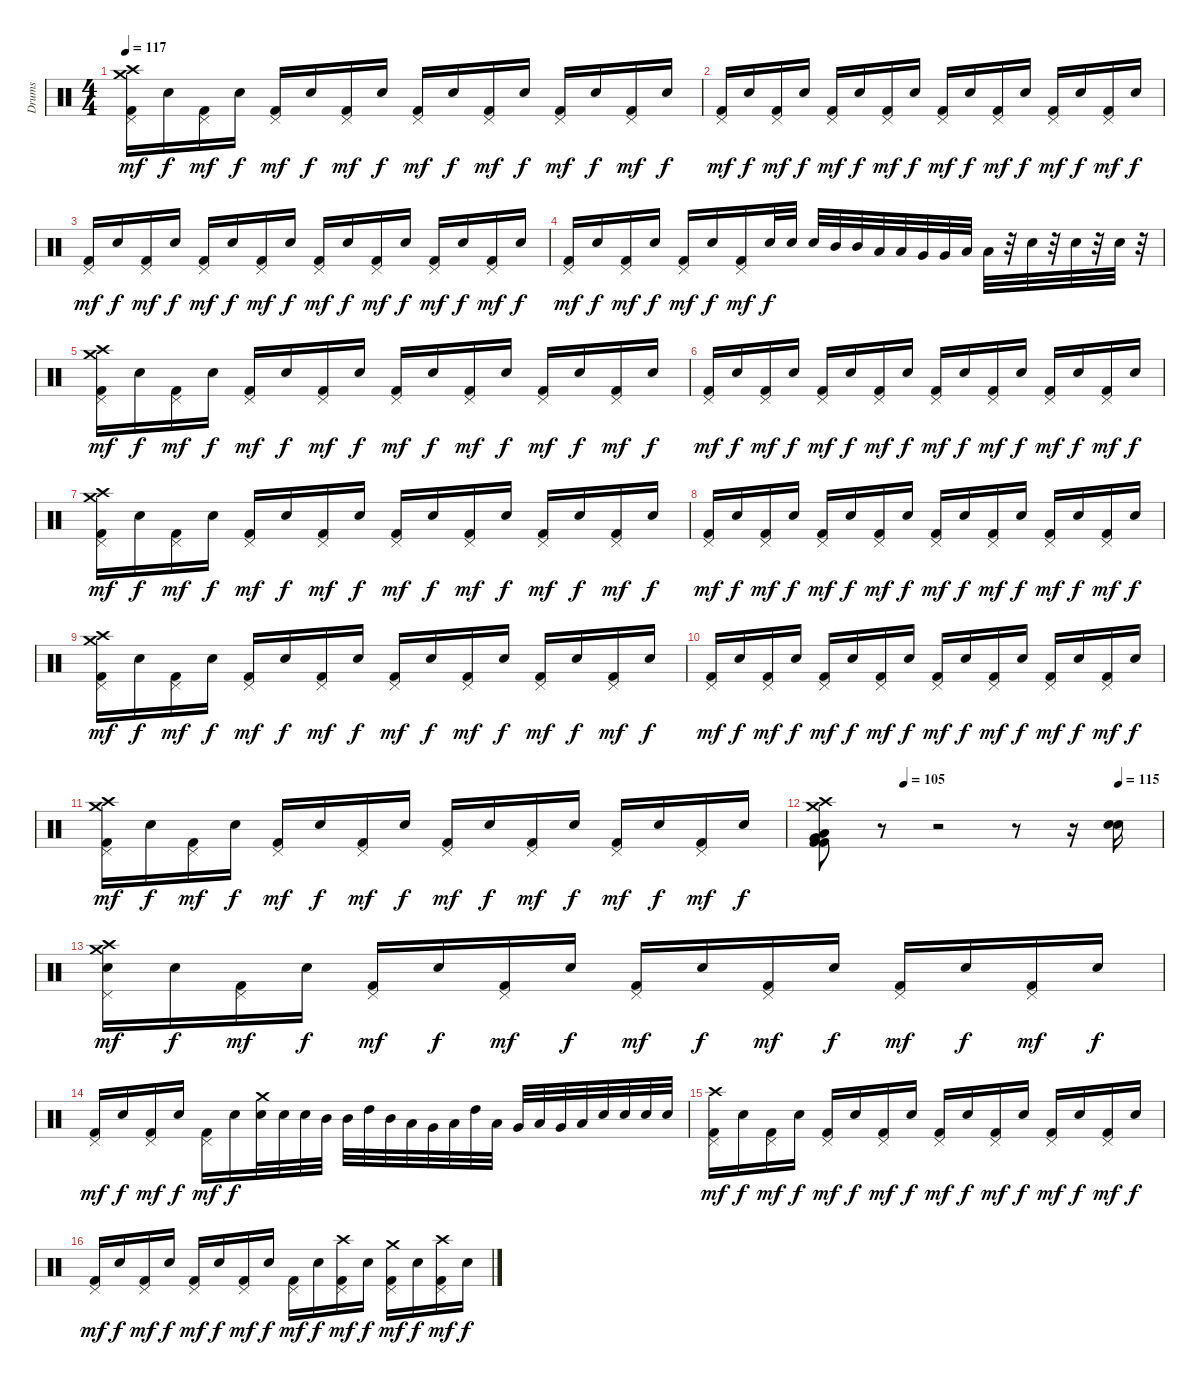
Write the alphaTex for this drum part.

\track ("Drums" "Drums") {instrument percussion}
\staff {score}
\articulation defaults
\ts (4 4)
\tempo 117
\clef neutral
\ks c
("Crash high (hit)" "Crash medium (hit)" "Pedal Hi-Hat (hit)" "Kick (hit) 2").16{dy mf} "Snare (hit) 2".16{dy f} ("Pedal Hi-Hat (hit)" "Kick (hit) 2").16{dy mf} "Snare (hit) 2".16{dy f} ("Pedal Hi-Hat (hit)" "Kick (hit) 2").16{dy mf} "Snare (hit) 2".16{dy f} ("Pedal Hi-Hat (hit)" "Kick (hit) 2").16{dy mf} "Snare (hit) 2".16{dy f} ("Pedal Hi-Hat (hit)" "Kick (hit) 2").16{dy mf} "Snare (hit) 2".16{dy f} ("Pedal Hi-Hat (hit)" "Kick (hit) 2").16{dy mf} "Snare (hit) 2".16{dy f} ("Pedal Hi-Hat (hit)" "Kick (hit) 2").16{dy mf} "Snare (hit) 2".16{dy f} ("Pedal Hi-Hat (hit)" "Kick (hit) 2").16{dy mf} "Snare (hit) 2".16{dy f} |
("Pedal Hi-Hat (hit)" "Kick (hit) 2").16{dy mf} "Snare (hit) 2".16{dy f} ("Pedal Hi-Hat (hit)" "Kick (hit) 2").16{dy mf} "Snare (hit) 2".16{dy f} ("Pedal Hi-Hat (hit)" "Kick (hit) 2").16{dy mf} "Snare (hit) 2".16{dy f} ("Pedal Hi-Hat (hit)" "Kick (hit) 2").16{dy mf} "Snare (hit) 2".16{dy f} ("Pedal Hi-Hat (hit)" "Kick (hit) 2").16{dy mf} "Snare (hit) 2".16{dy f} ("Pedal Hi-Hat (hit)" "Kick (hit) 2").16{dy mf} "Snare (hit) 2".16{dy f} ("Pedal Hi-Hat (hit)" "Kick (hit) 2").16{dy mf} "Snare (hit) 2".16{dy f} ("Pedal Hi-Hat (hit)" "Kick (hit) 2").16{dy mf} "Snare (hit) 2".16{dy f} |
("Pedal Hi-Hat (hit)" "Kick (hit) 2").16{dy mf} "Snare (hit) 2".16{dy f} ("Pedal Hi-Hat (hit)" "Kick (hit) 2").16{dy mf} "Snare (hit) 2".16{dy f} ("Pedal Hi-Hat (hit)" "Kick (hit) 2").16{dy mf} "Snare (hit) 2".16{dy f} ("Pedal Hi-Hat (hit)" "Kick (hit) 2").16{dy mf} "Snare (hit) 2".16{dy f} ("Pedal Hi-Hat (hit)" "Kick (hit) 2").16{dy mf} "Snare (hit) 2".16{dy f} ("Pedal Hi-Hat (hit)" "Kick (hit) 2").16{dy mf} "Snare (hit) 2".16{dy f} ("Pedal Hi-Hat (hit)" "Kick (hit) 2").16{dy mf} "Snare (hit) 2".16{dy f} ("Pedal Hi-Hat (hit)" "Kick (hit) 2").16{dy mf} "Snare (hit) 2".16{dy f} |
("Pedal Hi-Hat (hit)" "Kick (hit) 2").16{dy mf} "Snare (hit) 2".16{dy f} ("Pedal Hi-Hat (hit)" "Kick (hit) 2").16{dy mf} "Snare (hit) 2".16{dy f} ("Pedal Hi-Hat (hit)" "Kick (hit) 2").16{dy mf} "Snare (hit) 2".16{dy f} ("Pedal Hi-Hat (hit)" "Kick (hit) 2").16{dy mf} "Snare (hit) 2".32{dy f} "Snare (hit) 2".32 "Snare (hit) 2".32 "Mid Tom (hit)".32 "Mid Tom (hit)".32 "Low Tom (hit)".32 "Low Tom (hit)".32 "Very Low Tom (hit)".32 "Very Low Tom (hit)".32 "Low Floor Tom (hit)".32 "Low Floor Tom (hit)".32 r.32 "Snare (hit) 2".32 r.32 "Snare (hit) 2".32 r.32 "Snare (hit) 2".32 r.32 |
("Crash high (hit)" "Crash medium (hit)" "Pedal Hi-Hat (hit)" "Kick (hit) 2").16{dy mf} "Snare (hit) 2".16{dy f} ("Pedal Hi-Hat (hit)" "Kick (hit) 2").16{dy mf} "Snare (hit) 2".16{dy f} ("Pedal Hi-Hat (hit)" "Kick (hit) 2").16{dy mf} "Snare (hit) 2".16{dy f} ("Pedal Hi-Hat (hit)" "Kick (hit) 2").16{dy mf} "Snare (hit) 2".16{dy f} ("Pedal Hi-Hat (hit)" "Kick (hit) 2").16{dy mf} "Snare (hit) 2".16{dy f} ("Pedal Hi-Hat (hit)" "Kick (hit) 2").16{dy mf} "Snare (hit) 2".16{dy f} ("Pedal Hi-Hat (hit)" "Kick (hit) 2").16{dy mf} "Snare (hit) 2".16{dy f} ("Pedal Hi-Hat (hit)" "Kick (hit) 2").16{dy mf} "Snare (hit) 2".16{dy f} |
("Pedal Hi-Hat (hit)" "Kick (hit) 2").16{dy mf} "Snare (hit) 2".16{dy f} ("Pedal Hi-Hat (hit)" "Kick (hit) 2").16{dy mf} "Snare (hit) 2".16{dy f} ("Pedal Hi-Hat (hit)" "Kick (hit) 2").16{dy mf} "Snare (hit) 2".16{dy f} ("Pedal Hi-Hat (hit)" "Kick (hit) 2").16{dy mf} "Snare (hit) 2".16{dy f} ("Pedal Hi-Hat (hit)" "Kick (hit) 2").16{dy mf} "Snare (hit) 2".16{dy f} ("Pedal Hi-Hat (hit)" "Kick (hit) 2").16{dy mf} "Snare (hit) 2".16{dy f} ("Pedal Hi-Hat (hit)" "Kick (hit) 2").16{dy mf} "Snare (hit) 2".16{dy f} ("Pedal Hi-Hat (hit)" "Kick (hit) 2").16{dy mf} "Snare (hit) 2".16{dy f} |
("Crash high (hit)" "Crash medium (hit)" "Pedal Hi-Hat (hit)" "Kick (hit) 2").16{dy mf} "Snare (hit) 2".16{dy f} ("Pedal Hi-Hat (hit)" "Kick (hit) 2").16{dy mf} "Snare (hit) 2".16{dy f} ("Pedal Hi-Hat (hit)" "Kick (hit) 2").16{dy mf} "Snare (hit) 2".16{dy f} ("Pedal Hi-Hat (hit)" "Kick (hit) 2").16{dy mf} "Snare (hit) 2".16{dy f} ("Pedal Hi-Hat (hit)" "Kick (hit) 2").16{dy mf} "Snare (hit) 2".16{dy f} ("Pedal Hi-Hat (hit)" "Kick (hit) 2").16{dy mf} "Snare (hit) 2".16{dy f} ("Pedal Hi-Hat (hit)" "Kick (hit) 2").16{dy mf} "Snare (hit) 2".16{dy f} ("Pedal Hi-Hat (hit)" "Kick (hit) 2").16{dy mf} "Snare (hit) 2".16{dy f} |
("Pedal Hi-Hat (hit)" "Kick (hit) 2").16{dy mf} "Snare (hit) 2".16{dy f} ("Pedal Hi-Hat (hit)" "Kick (hit) 2").16{dy mf} "Snare (hit) 2".16{dy f} ("Pedal Hi-Hat (hit)" "Kick (hit) 2").16{dy mf} "Snare (hit) 2".16{dy f} ("Pedal Hi-Hat (hit)" "Kick (hit) 2").16{dy mf} "Snare (hit) 2".16{dy f} ("Pedal Hi-Hat (hit)" "Kick (hit) 2").16{dy mf} "Snare (hit) 2".16{dy f} ("Pedal Hi-Hat (hit)" "Kick (hit) 2").16{dy mf} "Snare (hit) 2".16{dy f} ("Pedal Hi-Hat (hit)" "Kick (hit) 2").16{dy mf} "Snare (hit) 2".16{dy f} ("Pedal Hi-Hat (hit)" "Kick (hit) 2").16{dy mf} "Snare (hit) 2".16{dy f} |
("Crash high (hit)" "Crash medium (hit)" "Pedal Hi-Hat (hit)" "Kick (hit) 2").16{dy mf} "Snare (hit) 2".16{dy f} ("Pedal Hi-Hat (hit)" "Kick (hit) 2").16{dy mf} "Snare (hit) 2".16{dy f} ("Pedal Hi-Hat (hit)" "Kick (hit) 2").16{dy mf} "Snare (hit) 2".16{dy f} ("Pedal Hi-Hat (hit)" "Kick (hit) 2").16{dy mf} "Snare (hit) 2".16{dy f} ("Pedal Hi-Hat (hit)" "Kick (hit) 2").16{dy mf} "Snare (hit) 2".16{dy f} ("Pedal Hi-Hat (hit)" "Kick (hit) 2").16{dy mf} "Snare (hit) 2".16{dy f} ("Pedal Hi-Hat (hit)" "Kick (hit) 2").16{dy mf} "Snare (hit) 2".16{dy f} ("Pedal Hi-Hat (hit)" "Kick (hit) 2").16{dy mf} "Snare (hit) 2".16{dy f} |
("Pedal Hi-Hat (hit)" "Kick (hit) 2").16{dy mf} "Snare (hit) 2".16{dy f} ("Pedal Hi-Hat (hit)" "Kick (hit) 2").16{dy mf} "Snare (hit) 2".16{dy f} ("Pedal Hi-Hat (hit)" "Kick (hit) 2").16{dy mf} "Snare (hit) 2".16{dy f} ("Pedal Hi-Hat (hit)" "Kick (hit) 2").16{dy mf} "Snare (hit) 2".16{dy f} ("Pedal Hi-Hat (hit)" "Kick (hit) 2").16{dy mf} "Snare (hit) 2".16{dy f} ("Pedal Hi-Hat (hit)" "Kick (hit) 2").16{dy mf} "Snare (hit) 2".16{dy f} ("Pedal Hi-Hat (hit)" "Kick (hit) 2").16{dy mf} "Snare (hit) 2".16{dy f} ("Pedal Hi-Hat (hit)" "Kick (hit) 2").16{dy mf} "Snare (hit) 2".16{dy f} |
("Crash high (hit)" "Crash medium (hit)" "Pedal Hi-Hat (hit)" "Kick (hit) 2").16{dy mf} "Snare (hit) 2".16{dy f} ("Pedal Hi-Hat (hit)" "Kick (hit) 2").16{dy mf} "Snare (hit) 2".16{dy f} ("Pedal Hi-Hat (hit)" "Kick (hit) 2").16{dy mf} "Snare (hit) 2".16{dy f} ("Pedal Hi-Hat (hit)" "Kick (hit) 2").16{dy mf} "Snare (hit) 2".16{dy f} ("Pedal Hi-Hat (hit)" "Kick (hit) 2").16{dy mf} "Snare (hit) 2".16{dy f} ("Pedal Hi-Hat (hit)" "Kick (hit) 2").16{dy mf} "Snare (hit) 2".16{dy f} ("Pedal Hi-Hat (hit)" "Kick (hit) 2").16{dy mf} "Snare (hit) 2".16{dy f} ("Pedal Hi-Hat (hit)" "Kick (hit) 2").16{dy mf} "Snare (hit) 2".16{dy f} |
\tempo (105 0.25)
\tempo (115 0.875)
("Crash medium (hit)" "Crash high (hit)" "Very Low Tom (hit)" "Low Floor Tom (hit)" "Kick (hit) 2" "Kick (hit) 2").8 r.8 r.2 r.8 r.16 ("Snare (hit) 2" "Snare (hit) 2").16 |
("Crash high (hit)" "Crash medium (hit)" "Pedal Hi-Hat (hit)" "Snare (hit) 2").16{dy mf} "Snare (hit) 2".16{dy f} ("Pedal Hi-Hat (hit)" "Kick (hit) 2").16{dy mf} "Snare (hit) 2".16{dy f} ("Pedal Hi-Hat (hit)" "Kick (hit) 2").16{dy mf} "Snare (hit) 2".16{dy f} ("Pedal Hi-Hat (hit)" "Kick (hit) 2").16{dy mf} "Snare (hit) 2".16{dy f} ("Pedal Hi-Hat (hit)" "Kick (hit) 2").16{dy mf} "Snare (hit) 2".16{dy f} ("Pedal Hi-Hat (hit)" "Kick (hit) 2").16{dy mf} "Snare (hit) 2".16{dy f} ("Pedal Hi-Hat (hit)" "Kick (hit) 2").16{dy mf} "Snare (hit) 2".16{dy f} ("Pedal Hi-Hat (hit)" "Kick (hit) 2").16{dy mf} "Snare (hit) 2".16{dy f} |
("Pedal Hi-Hat (hit)" "Kick (hit) 2").16{dy mf} "Snare (hit) 2".16{dy f} ("Pedal Hi-Hat (hit)" "Kick (hit) 2").16{dy mf} "Snare (hit) 2".16{dy f} ("Pedal Hi-Hat (hit)" "Kick (hit) 2").16{dy mf} "Snare (hit) 2".16{dy f} ("Crash medium (hit)" "Snare (hit) 2").32 "Snare (hit) 2".32 "Snare (hit) 2".32 "Mid Tom (hit)".32 "Mid Tom (hit)".32 "High Tom (hit)".32 "Mid Tom (hit)".32 "Low Tom (hit)".32 "Very Low Tom (hit)".32 "Low Floor Tom (hit)".32 "High Tom (hit)".32 "Low Tom (hit)".32 "Very Low Tom (hit)".32 "Low Floor Tom (hit)".32 "Very Low Tom (hit)".32 "Low Floor Tom (hit)".32 "Snare (hit) 2".32 "Snare (hit) 2".32 "Snare (hit) 2".32 "Snare (hit) 2".32 |
("Crash high (hit)" "Pedal Hi-Hat (hit)" "Kick (hit) 2").16{dy mf} "Snare (hit) 2".16{dy f} ("Pedal Hi-Hat (hit)" "Kick (hit) 2").16{dy mf} "Snare (hit) 2".16{dy f} ("Pedal Hi-Hat (hit)" "Kick (hit) 2").16{dy mf} "Snare (hit) 2".16{dy f} ("Pedal Hi-Hat (hit)" "Kick (hit) 2").16{dy mf} "Snare (hit) 2".16{dy f} ("Pedal Hi-Hat (hit)" "Kick (hit) 2").16{dy mf} "Snare (hit) 2".16{dy f} ("Pedal Hi-Hat (hit)" "Kick (hit) 2").16{dy mf} "Snare (hit) 2".16{dy f} ("Pedal Hi-Hat (hit)" "Kick (hit) 2").16{dy mf} "Snare (hit) 2".16{dy f} ("Pedal Hi-Hat (hit)" "Kick (hit) 2").16{dy mf} "Snare (hit) 2".16{dy f} |
("Pedal Hi-Hat (hit)" "Kick (hit) 2").16{dy mf} "Snare (hit) 2".16{dy f} ("Pedal Hi-Hat (hit)" "Kick (hit) 2").16{dy mf} "Snare (hit) 2".16{dy f} ("Pedal Hi-Hat (hit)" "Kick (hit) 2").16{dy mf} "Snare (hit) 2".16{dy f} ("Pedal Hi-Hat (hit)" "Kick (hit) 2").16{dy mf} "Snare (hit) 2".16{dy f} ("Pedal Hi-Hat (hit)" "Kick (hit) 2").16{dy mf} "Snare (hit) 2".16{dy f} ("Crash high (hit)" "Pedal Hi-Hat (hit)" "Kick (hit) 2").16{dy mf} "Snare (hit) 2".16{dy f} ("Crash medium (hit)" "Pedal Hi-Hat (hit)" "Kick (hit) 2").16{dy mf} "Snare (hit) 2".16{dy f} ("Crash high (hit)" "Pedal Hi-Hat (hit)" "Kick (hit) 2").16{dy mf} "Snare (hit) 2".16{dy f}
